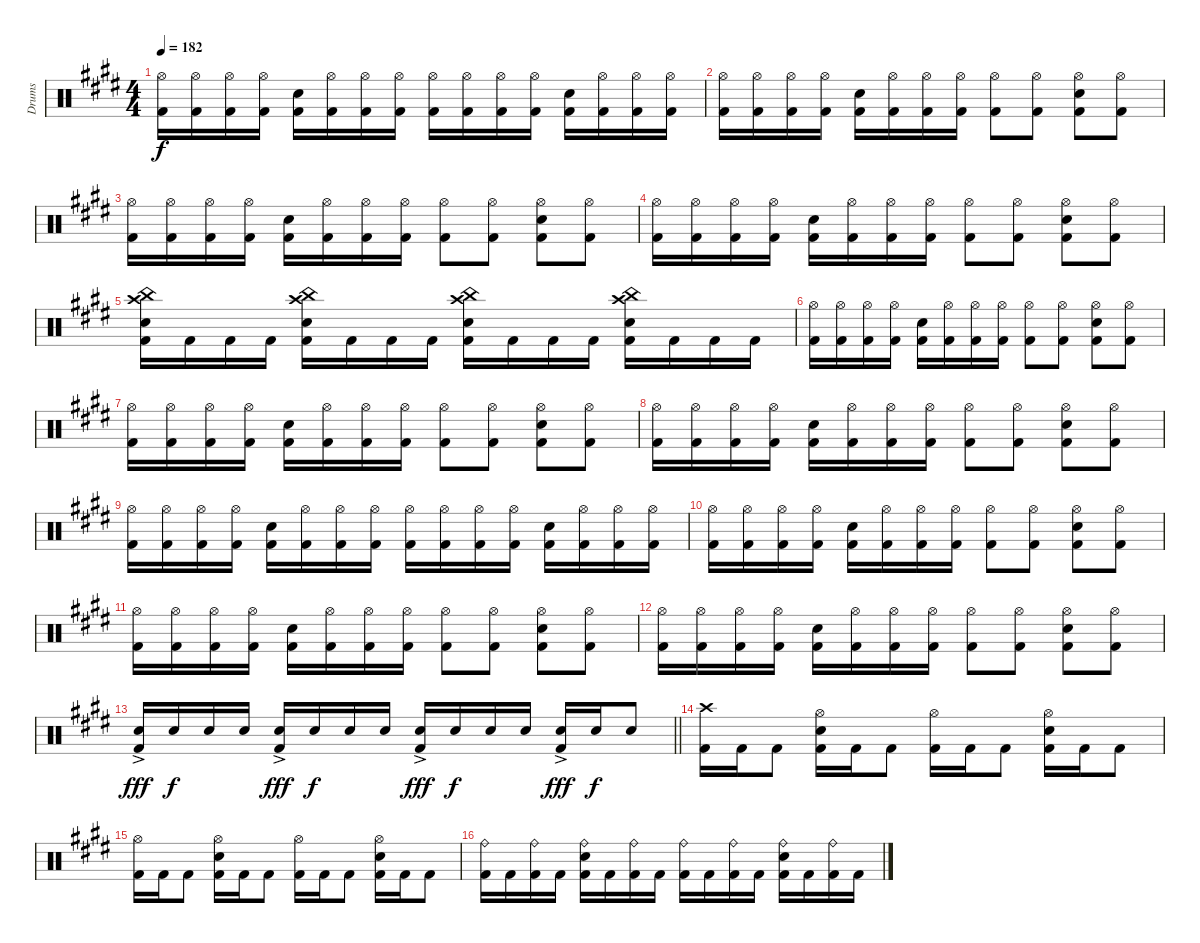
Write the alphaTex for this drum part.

\track ("Drums" "Drums") {instrument percussion}
\staff {score}
\articulation defaults
\ts (4 4)
\tempo 182
\clef neutral
\ks c#minor
("Hi-Hat (open)" "Kick (hit) 2").16{dy f} ("Hi-Hat (open)" "Kick (hit) 2").16 ("Hi-Hat (open)" "Kick (hit) 2").16 ("Hi-Hat (open)" "Kick (hit) 2").16 ("Snare (hit) 2" "Kick (hit) 2").16 ("Hi-Hat (open)" "Kick (hit) 2").16 ("Hi-Hat (open)" "Kick (hit) 2").16 ("Hi-Hat (open)" "Kick (hit) 2").16 ("Hi-Hat (open)" "Kick (hit) 2").16 ("Hi-Hat (open)" "Kick (hit) 2").16 ("Hi-Hat (open)" "Kick (hit) 2").16 ("Hi-Hat (open)" "Kick (hit) 2").16 ("Snare (hit) 2" "Kick (hit) 2").16 ("Hi-Hat (open)" "Kick (hit) 2").16 ("Hi-Hat (open)" "Kick (hit) 2").16 ("Hi-Hat (open)" "Kick (hit) 2").16 |
("Hi-Hat (open)" "Kick (hit) 2").16 ("Hi-Hat (open)" "Kick (hit) 2").16 ("Hi-Hat (open)" "Kick (hit) 2").16 ("Hi-Hat (open)" "Kick (hit) 2").16 ("Snare (hit) 2" "Kick (hit) 2").16 ("Hi-Hat (open)" "Kick (hit) 2").16 ("Hi-Hat (open)" "Kick (hit) 2").16 ("Hi-Hat (open)" "Kick (hit) 2").16 ("Hi-Hat (open)" "Kick (hit) 2").8 ("Hi-Hat (open)" "Kick (hit) 2").8 ("Hi-Hat (open)" "Snare (hit) 2" "Kick (hit) 2").8 ("Hi-Hat (open)" "Kick (hit) 2").8 |
("Hi-Hat (open)" "Kick (hit) 2").16 ("Hi-Hat (open)" "Kick (hit) 2").16 ("Hi-Hat (open)" "Kick (hit) 2").16 ("Hi-Hat (open)" "Kick (hit) 2").16 ("Snare (hit) 2" "Kick (hit) 2").16 ("Hi-Hat (open)" "Kick (hit) 2").16 ("Hi-Hat (open)" "Kick (hit) 2").16 ("Hi-Hat (open)" "Kick (hit) 2").16 ("Hi-Hat (open)" "Kick (hit) 2").8 ("Hi-Hat (open)" "Kick (hit) 2").8 ("Hi-Hat (open)" "Snare (hit) 2" "Kick (hit) 2").8 ("Hi-Hat (open)" "Kick (hit) 2").8 |
("Hi-Hat (open)" "Kick (hit) 2").16 ("Hi-Hat (open)" "Kick (hit) 2").16 ("Hi-Hat (open)" "Kick (hit) 2").16 ("Hi-Hat (open)" "Kick (hit) 2").16 ("Snare (hit) 2" "Kick (hit) 2").16 ("Hi-Hat (open)" "Kick (hit) 2").16 ("Hi-Hat (open)" "Kick (hit) 2").16 ("Hi-Hat (open)" "Kick (hit) 2").16 ("Hi-Hat (open)" "Kick (hit) 2").8 ("Hi-Hat (open)" "Kick (hit) 2").8 ("Hi-Hat (open)" "Snare (hit) 2" "Kick (hit) 2").8 ("Hi-Hat (open)" "Kick (hit) 2").8 |
("Crash high (hit)" "China (hit)" "Snare (hit) 2" "Kick (hit) 2").16 "Kick (hit) 2".16 "Kick (hit) 2".16 "Kick (hit) 2".16 ("Crash high (hit)" "China (hit)" "Snare (hit) 2" "Kick (hit) 2").16 "Kick (hit) 2".16 "Kick (hit) 2".16 "Kick (hit) 2".16 ("Crash high (hit)" "China (hit)" "Snare (hit) 2" "Kick (hit) 2").16 "Kick (hit) 2".16 "Kick (hit) 2".16 "Kick (hit) 2".16 ("Crash high (hit)" "China (hit)" "Snare (hit) 2" "Kick (hit) 2").16 "Kick (hit) 2".16 "Kick (hit) 2".16 "Kick (hit) 2".16 |
("Hi-Hat (open)" "Kick (hit) 2").16 ("Hi-Hat (open)" "Kick (hit) 2").16 ("Hi-Hat (open)" "Kick (hit) 2").16 ("Hi-Hat (open)" "Kick (hit) 2").16 ("Snare (hit) 2" "Kick (hit) 2").16 ("Hi-Hat (open)" "Kick (hit) 2").16 ("Hi-Hat (open)" "Kick (hit) 2").16 ("Hi-Hat (open)" "Kick (hit) 2").16 ("Hi-Hat (open)" "Kick (hit) 2").8 ("Hi-Hat (open)" "Kick (hit) 2").8 ("Hi-Hat (open)" "Snare (hit) 2" "Kick (hit) 2").8 ("Hi-Hat (open)" "Kick (hit) 2").8 |
("Hi-Hat (open)" "Kick (hit) 2").16 ("Hi-Hat (open)" "Kick (hit) 2").16 ("Hi-Hat (open)" "Kick (hit) 2").16 ("Hi-Hat (open)" "Kick (hit) 2").16 ("Snare (hit) 2" "Kick (hit) 2").16 ("Hi-Hat (open)" "Kick (hit) 2").16 ("Hi-Hat (open)" "Kick (hit) 2").16 ("Hi-Hat (open)" "Kick (hit) 2").16 ("Hi-Hat (open)" "Kick (hit) 2").8 ("Hi-Hat (open)" "Kick (hit) 2").8 ("Hi-Hat (open)" "Snare (hit) 2" "Kick (hit) 2").8 ("Hi-Hat (open)" "Kick (hit) 2").8 |
("Hi-Hat (open)" "Kick (hit) 2").16 ("Hi-Hat (open)" "Kick (hit) 2").16 ("Hi-Hat (open)" "Kick (hit) 2").16 ("Hi-Hat (open)" "Kick (hit) 2").16 ("Snare (hit) 2" "Kick (hit) 2").16 ("Hi-Hat (open)" "Kick (hit) 2").16 ("Hi-Hat (open)" "Kick (hit) 2").16 ("Hi-Hat (open)" "Kick (hit) 2").16 ("Hi-Hat (open)" "Kick (hit) 2").8 ("Hi-Hat (open)" "Kick (hit) 2").8 ("Hi-Hat (open)" "Snare (hit) 2" "Kick (hit) 2").8 ("Hi-Hat (open)" "Kick (hit) 2").8 |
("Hi-Hat (open)" "Kick (hit) 2").16 ("Hi-Hat (open)" "Kick (hit) 2").16 ("Hi-Hat (open)" "Kick (hit) 2").16 ("Hi-Hat (open)" "Kick (hit) 2").16 ("Snare (hit) 2" "Kick (hit) 2").16 ("Hi-Hat (open)" "Kick (hit) 2").16 ("Hi-Hat (open)" "Kick (hit) 2").16 ("Hi-Hat (open)" "Kick (hit) 2").16 ("Hi-Hat (open)" "Kick (hit) 2").16 ("Hi-Hat (open)" "Kick (hit) 2").16 ("Hi-Hat (open)" "Kick (hit) 2").16 ("Hi-Hat (open)" "Kick (hit) 2").16 ("Snare (hit) 2" "Kick (hit) 2").16 ("Hi-Hat (open)" "Kick (hit) 2").16 ("Hi-Hat (open)" "Kick (hit) 2").16 ("Hi-Hat (open)" "Kick (hit) 2").16 |
("Hi-Hat (open)" "Kick (hit) 2").16 ("Hi-Hat (open)" "Kick (hit) 2").16 ("Hi-Hat (open)" "Kick (hit) 2").16 ("Hi-Hat (open)" "Kick (hit) 2").16 ("Snare (hit) 2" "Kick (hit) 2").16 ("Hi-Hat (open)" "Kick (hit) 2").16 ("Hi-Hat (open)" "Kick (hit) 2").16 ("Hi-Hat (open)" "Kick (hit) 2").16 ("Hi-Hat (open)" "Kick (hit) 2").8 ("Hi-Hat (open)" "Kick (hit) 2").8 ("Hi-Hat (open)" "Snare (hit) 2" "Kick (hit) 2").8 ("Hi-Hat (open)" "Kick (hit) 2").8 |
("Hi-Hat (open)" "Kick (hit) 2").16 ("Hi-Hat (open)" "Kick (hit) 2").16 ("Hi-Hat (open)" "Kick (hit) 2").16 ("Hi-Hat (open)" "Kick (hit) 2").16 ("Snare (hit) 2" "Kick (hit) 2").16 ("Hi-Hat (open)" "Kick (hit) 2").16 ("Hi-Hat (open)" "Kick (hit) 2").16 ("Hi-Hat (open)" "Kick (hit) 2").16 ("Hi-Hat (open)" "Kick (hit) 2").8 ("Hi-Hat (open)" "Kick (hit) 2").8 ("Hi-Hat (open)" "Snare (hit) 2" "Kick (hit) 2").8 ("Hi-Hat (open)" "Kick (hit) 2").8 |
("Hi-Hat (open)" "Kick (hit) 2").16 ("Hi-Hat (open)" "Kick (hit) 2").16 ("Hi-Hat (open)" "Kick (hit) 2").16 ("Hi-Hat (open)" "Kick (hit) 2").16 ("Snare (hit) 2" "Kick (hit) 2").16 ("Hi-Hat (open)" "Kick (hit) 2").16 ("Hi-Hat (open)" "Kick (hit) 2").16 ("Hi-Hat (open)" "Kick (hit) 2").16 ("Hi-Hat (open)" "Kick (hit) 2").8 ("Hi-Hat (open)" "Kick (hit) 2").8 ("Hi-Hat (open)" "Snare (hit) 2" "Kick (hit) 2").8 ("Hi-Hat (open)" "Kick (hit) 2").8 |
\barLineRight lightlight
("Snare (hit) 2" "Kick (hit) 2"{ac}).16{dy fff} "Snare (hit) 2".16{dy f} "Snare (hit) 2".16 "Snare (hit) 2".16 ("Snare (hit) 2" "Kick (hit) 2"{ac}).16{dy fff} "Snare (hit) 2".16{dy f} "Snare (hit) 2".16 "Snare (hit) 2".16 ("Snare (hit) 2" "Kick (hit) 2"{ac}).16{dy fff} "Snare (hit) 2".16{dy f} "Snare (hit) 2".16 "Snare (hit) 2".16 ("Snare (hit) 2" "Kick (hit) 2"{ac}).16{dy fff} "Snare (hit) 2".16{dy f} "Snare (hit) 2".8 |
("Crash high (hit)" "Kick (hit) 2").16 "Kick (hit) 2".16 "Kick (hit) 2".8 ("Hi-Hat (open)" "Snare (hit) 2" "Kick (hit) 2").16 "Kick (hit) 2".16 "Kick (hit) 2".8 ("Hi-Hat (open)" "Kick (hit) 2").16 "Kick (hit) 2".16 "Kick (hit) 2".8 ("Hi-Hat (open)" "Snare (hit) 2" "Kick (hit) 2").16 "Kick (hit) 2".16 "Kick (hit) 2".8 |
("Hi-Hat (open)" "Kick (hit) 2").16 "Kick (hit) 2".16 "Kick (hit) 2".8 ("Hi-Hat (open)" "Snare (hit) 2" "Kick (hit) 2").16 "Kick (hit) 2".16 "Kick (hit) 2".8 ("Hi-Hat (open)" "Kick (hit) 2").16 "Kick (hit) 2".16 "Kick (hit) 2".8 ("Hi-Hat (open)" "Snare (hit) 2" "Kick (hit) 2").16 "Kick (hit) 2".16 "Kick (hit) 2".8 |
("Ride (bell)" "Kick (hit) 2").16 "Kick (hit) 2".16 ("Ride (bell)" "Kick (hit) 2").16 "Kick (hit) 2".16 ("Ride (bell)" "Snare (hit) 2" "Kick (hit) 2").16 "Kick (hit) 2".16 ("Ride (bell)" "Kick (hit) 2").16 "Kick (hit) 2".16 ("Ride (bell)" "Kick (hit) 2").16 "Kick (hit) 2".16 ("Ride (bell)" "Kick (hit) 2").16 "Kick (hit) 2".16 ("Ride (bell)" "Snare (hit) 2" "Kick (hit) 2").16 "Kick (hit) 2".16 ("Ride (bell)" "Kick (hit) 2").16 "Kick (hit) 2".16
